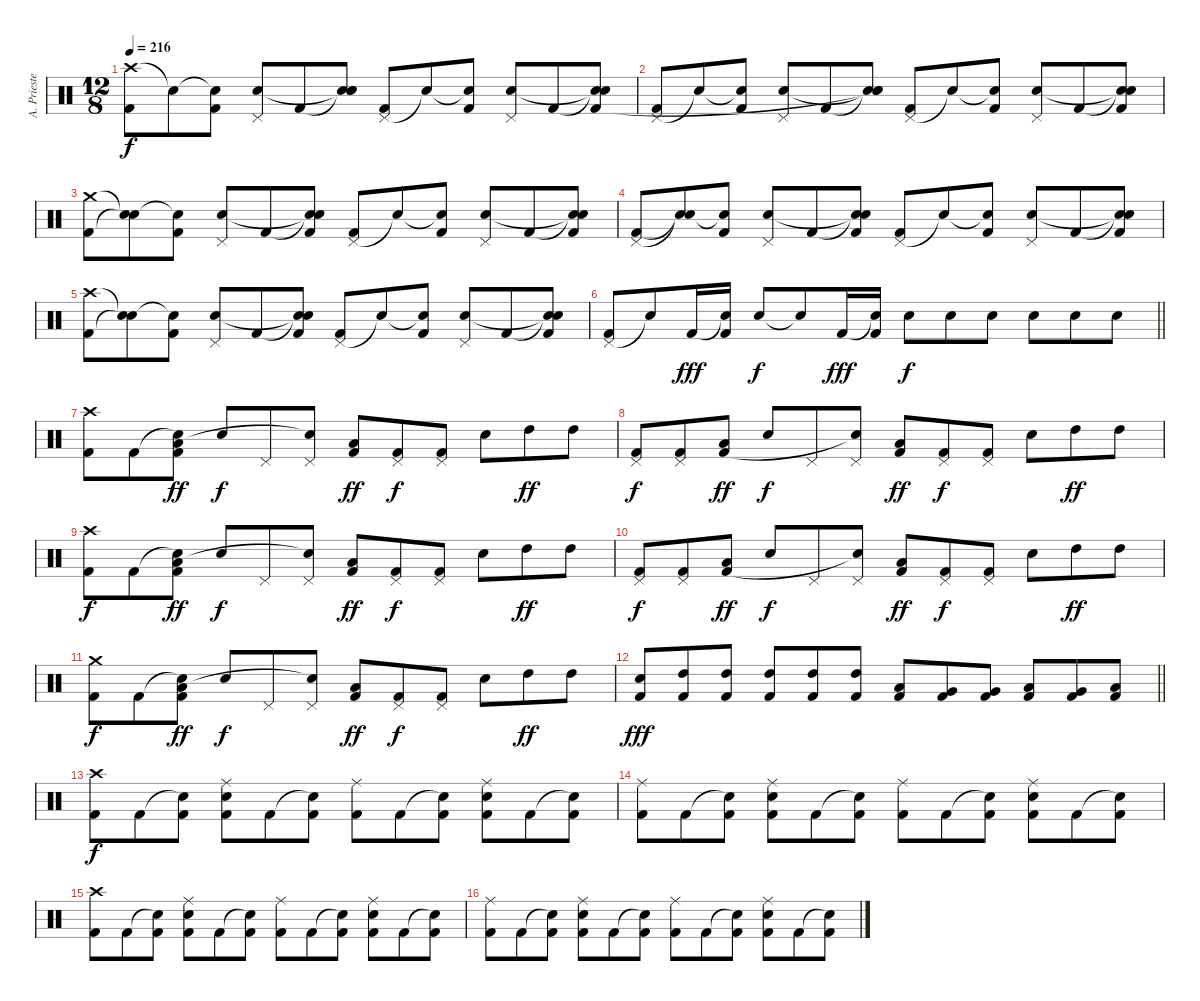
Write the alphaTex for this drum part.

\track ("A. Priester" "A. Prieste") {instrument percussion}
\staff {score}
\articulation defaults
\ts (12 8)
\tempo 216
\clef neutral
\ks c
("Crash high (hit)" "Kick (hit) 2").8{dy f} "Snare (hit)"{t}.8 ("Snare (hit)"{t} "Kick (hit) 2").8 ("Pedal Hi-Hat (hit)" "Electric Snare (hit)").8 "Kick (hit) 2".8 ("Snare (hit)"{t} "Snare (hit)"{t} "Snare (hit)"{t}).8 ("Pedal Hi-Hat (hit)" "Kick (hit) 2").8 "Snare (hit)"{t}.8 ("Snare (hit)"{t} "Kick (hit) 2").8 ("Pedal Hi-Hat (hit)" "Electric Snare (hit)").8 "Kick (hit) 2".8 ("Snare (hit)"{t} "Snare (hit)"{t} "Kick (hit) 2").8 |
("Pedal Hi-Hat (hit)" "Kick (hit) 2").8 "Snare (hit)"{t}.8 ("Snare (hit)"{t} "Kick (hit) 2").8 ("Pedal Hi-Hat (hit)" "Electric Snare (hit)").8 "Kick (hit) 2".8 ("Snare (hit)"{t} "Snare (hit)"{t} "Snare (hit)"{t}).8 ("Pedal Hi-Hat (hit)" "Kick (hit) 2").8 "Snare (hit)"{t}.8 ("Snare (hit)"{t} "Kick (hit) 2").8 ("Pedal Hi-Hat (hit)" "Electric Snare (hit)").8 "Kick (hit) 2".8 ("Snare (hit)"{t} "Snare (hit)"{t} "Kick (hit) 2").8 |
("Crash medium (hit)" "Kick (hit) 2").8 ("Snare (hit)"{t} "Snare (hit)"{t}).8 ("Snare (hit)"{t} "Kick (hit) 2").8 ("Pedal Hi-Hat (hit)" "Electric Snare (hit)").8 "Kick (hit) 2".8 ("Snare (hit)"{t} "Snare (hit)"{t} "Kick (hit) 2").8 ("Pedal Hi-Hat (hit)" "Kick (hit) 2").8 "Snare (hit)"{t}.8 ("Snare (hit)"{t} "Kick (hit) 2").8 ("Pedal Hi-Hat (hit)" "Electric Snare (hit)").8 "Kick (hit) 2".8 ("Snare (hit)"{t} "Snare (hit)"{t} "Kick (hit) 2").8 |
("Pedal Hi-Hat (hit)" "Kick (hit) 2").8 ("Snare (hit)"{t} "Snare (hit)"{t}).8 ("Snare (hit)"{t} "Kick (hit) 2").8 ("Pedal Hi-Hat (hit)" "Electric Snare (hit)").8 "Kick (hit) 2".8 ("Snare (hit)"{t} "Snare (hit)"{t} "Kick (hit) 2").8 ("Pedal Hi-Hat (hit)" "Kick (hit) 2").8 "Snare (hit)"{t}.8 ("Snare (hit)"{t} "Kick (hit) 2").8 ("Pedal Hi-Hat (hit)" "Electric Snare (hit)").8 "Kick (hit) 2".8 ("Snare (hit)"{t} "Snare (hit)"{t} "Kick (hit) 2").8 |
("Crash high (hit)" "Kick (hit) 2").8 ("Snare (hit)"{t} "Snare (hit)"{t}).8 ("Snare (hit)"{t} "Kick (hit) 2").8 ("Pedal Hi-Hat (hit)" "Electric Snare (hit)").8 "Kick (hit) 2".8 ("Snare (hit)"{t} "Snare (hit)"{t} "Kick (hit) 2").8 ("Pedal Hi-Hat (hit)" "Kick (hit) 2").8 "Snare (hit)"{t}.8 ("Snare (hit)"{t} "Kick (hit) 2").8 ("Pedal Hi-Hat (hit)" "Electric Snare (hit)").8 "Kick (hit) 2".8 ("Snare (hit)"{t} "Snare (hit)"{t} "Kick (hit) 2").8 |
\barLineRight lightlight
("Pedal Hi-Hat (hit)" "Kick (hit) 2").8 "Snare (hit)"{t}.8 "Kick (hit) 2".16{dy fff} ("Snare (hit)"{t} "Kick (hit) 2").16 "Electric Snare (hit)".8{dy f} "Snare (hit)"{t}.8 "Kick (hit) 2".16{dy fff} ("Snare (hit)"{t} "Kick (hit) 2").16 "Electric Snare (hit)".8{dy f} "Electric Snare (hit)".8 "Electric Snare (hit)".8 "Electric Snare (hit)".8 "Electric Snare (hit)".8 "Electric Snare (hit)".8 |
("Crash high (hit)" "Kick (hit) 2").8 "Kick (hit) 2".8 ("Snare (hit)"{t} "Low Floor Tom (hit)" "Kick (hit) 2").8{dy ff} "Electric Snare (hit)".8{dy f} "Pedal Hi-Hat (hit)".8 ("Pedal Hi-Hat (hit)" "Snare (hit)"{t}).8 ("Low Floor Tom (hit)" "Kick (hit) 2").8{dy ff} ("Pedal Hi-Hat (hit)" "Kick (hit) 2").8{dy f} ("Pedal Hi-Hat (hit)" "Kick (hit) 2").8 "Electric Snare (hit)".8 "High Tom (hit)".8{dy ff} "High Tom (hit)".8 |
("Pedal Hi-Hat (hit)" "Kick (hit) 2").8{dy f} ("Pedal Hi-Hat (hit)" "Kick (hit) 2").8 ("Low Floor Tom (hit)" "Kick (hit) 2").8{dy ff} "Electric Snare (hit)".8{dy f} "Pedal Hi-Hat (hit)".8 ("Pedal Hi-Hat (hit)" "Snare (hit)"{t}).8 ("Low Floor Tom (hit)" "Kick (hit) 2").8{dy ff} ("Pedal Hi-Hat (hit)" "Kick (hit) 2").8{dy f} ("Pedal Hi-Hat (hit)" "Kick (hit) 2").8 "Electric Snare (hit)".8 "High Tom (hit)".8{dy ff} "High Tom (hit)".8 |
("Crash high (hit)" "Kick (hit) 2").8{dy f} "Kick (hit) 2".8 ("Snare (hit)"{t} "Low Floor Tom (hit)" "Kick (hit) 2").8{dy ff} "Electric Snare (hit)".8{dy f} "Pedal Hi-Hat (hit)".8 ("Pedal Hi-Hat (hit)" "Snare (hit)"{t}).8 ("Low Floor Tom (hit)" "Kick (hit) 2").8{dy ff} ("Pedal Hi-Hat (hit)" "Kick (hit) 2").8{dy f} ("Pedal Hi-Hat (hit)" "Kick (hit) 2").8 "Electric Snare (hit)".8 "High Tom (hit)".8{dy ff} "High Tom (hit)".8 |
("Pedal Hi-Hat (hit)" "Kick (hit) 2").8{dy f} ("Pedal Hi-Hat (hit)" "Kick (hit) 2").8 ("Low Floor Tom (hit)" "Kick (hit) 2").8{dy ff} "Electric Snare (hit)".8{dy f} "Pedal Hi-Hat (hit)".8 ("Pedal Hi-Hat (hit)" "Snare (hit)"{t}).8 ("Low Floor Tom (hit)" "Kick (hit) 2").8{dy ff} ("Pedal Hi-Hat (hit)" "Kick (hit) 2").8{dy f} ("Pedal Hi-Hat (hit)" "Kick (hit) 2").8 "Electric Snare (hit)".8 "High Tom (hit)".8{dy ff} "High Tom (hit)".8 |
("Crash medium (hit)" "Kick (hit) 2").8{dy f} "Kick (hit) 2".8 ("Snare (hit)"{t} "Low Floor Tom (hit)" "Kick (hit) 2").8{dy ff} "Electric Snare (hit)".8{dy f} "Pedal Hi-Hat (hit)".8 ("Pedal Hi-Hat (hit)" "Snare (hit)"{t}).8 ("Low Floor Tom (hit)" "Kick (hit) 2").8{dy ff} ("Pedal Hi-Hat (hit)" "Kick (hit) 2").8{dy f} ("Pedal Hi-Hat (hit)" "Kick (hit) 2").8 "Electric Snare (hit)".8 "High Tom (hit)".8{dy ff} "High Tom (hit)".8 |
\barLineRight lightlight
("Electric Snare (hit)" "Kick (hit) 2").8{dy fff} ("High Tom (hit)" "Kick (hit) 2").8 ("High Tom (hit)" "Kick (hit) 2").8 ("High Tom (hit)" "Kick (hit) 2").8 ("High Tom (hit)" "Kick (hit) 2").8 ("High Tom (hit)" "Kick (hit) 2").8 ("Low Tom (hit)" "Kick (hit) 2").8 ("Very Low Tom (hit)" "Kick (hit) 2").8 ("Very Low Tom (hit)" "Kick (hit) 2").8 ("Low Floor Tom (hit)" "Kick (hit) 2").8 ("Very Low Tom (hit)" "Kick (hit) 2").8 ("Low Floor Tom (hit)" "Kick (hit) 2").8 |
("Crash high (hit)" "Kick (hit) 2").8{dy f} "Kick (hit) 2".8 ("Snare (hit)"{t} "Kick (hit) 2").8 ("Ride (middle)" "Electric Snare (hit)" "Kick (hit) 2").8 "Kick (hit) 2".8 ("Snare (hit)"{t} "Kick (hit) 2").8 ("Ride (middle)" "Kick (hit) 2").8 "Kick (hit) 2".8 ("Snare (hit)"{t} "Kick (hit) 2").8 ("Ride (middle)" "Electric Snare (hit)" "Kick (hit) 2").8 "Kick (hit) 2".8 ("Snare (hit)"{t} "Kick (hit) 2").8 |
("Ride (middle)" "Kick (hit) 2").8 "Kick (hit) 2".8 ("Snare (hit)"{t} "Kick (hit) 2").8 ("Ride (middle)" "Electric Snare (hit)" "Kick (hit) 2").8 "Kick (hit) 2".8 ("Snare (hit)"{t} "Kick (hit) 2").8 ("Ride (middle)" "Kick (hit) 2").8 "Kick (hit) 2".8 ("Snare (hit)"{t} "Kick (hit) 2").8 ("Ride (middle)" "Electric Snare (hit)" "Kick (hit) 2").8 "Kick (hit) 2".8 ("Snare (hit)"{t} "Kick (hit) 2").8 |
("Crash high (hit)" "Kick (hit) 2").8 "Kick (hit) 2".8 ("Snare (hit)"{t} "Kick (hit) 2").8 ("Ride (middle)" "Electric Snare (hit)" "Kick (hit) 2").8 "Kick (hit) 2".8 ("Snare (hit)"{t} "Kick (hit) 2").8 ("Ride (middle)" "Kick (hit) 2").8 "Kick (hit) 2".8 ("Snare (hit)"{t} "Kick (hit) 2").8 ("Ride (middle)" "Electric Snare (hit)" "Kick (hit) 2").8 "Kick (hit) 2".8 ("Snare (hit)"{t} "Kick (hit) 2").8 |
("Ride (middle)" "Kick (hit) 2").8 "Kick (hit) 2".8 ("Snare (hit)"{t} "Kick (hit) 2").8 ("Ride (middle)" "Electric Snare (hit)" "Kick (hit) 2").8 "Kick (hit) 2".8 ("Snare (hit)"{t} "Kick (hit) 2").8 ("Ride (middle)" "Kick (hit) 2").8 "Kick (hit) 2".8 ("Snare (hit)"{t} "Kick (hit) 2").8 ("Ride (middle)" "Electric Snare (hit)" "Kick (hit) 2").8 "Kick (hit) 2".8 ("Snare (hit)"{t} "Kick (hit) 2").8
